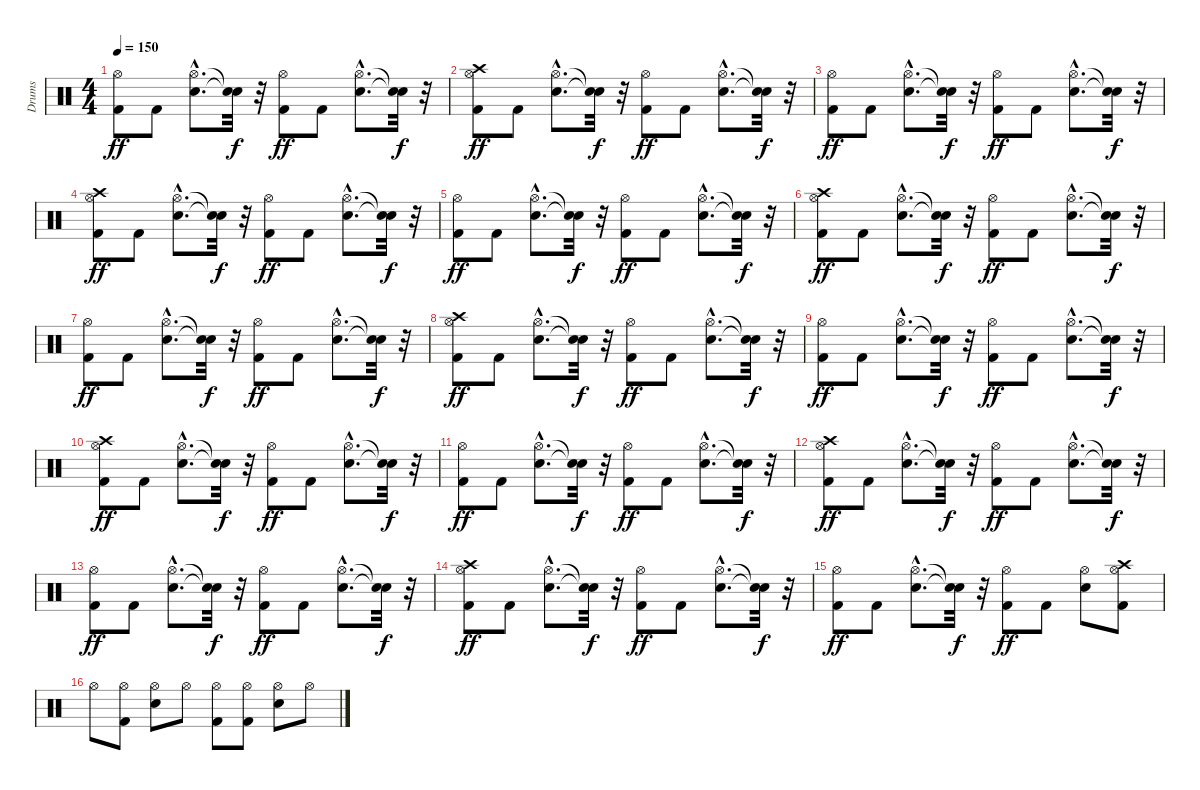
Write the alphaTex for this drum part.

\track ("Drums" "Drums") {instrument percussion}
\staff {score}
\articulation defaults
\ts (4 4)
\tempo 150
\clef neutral
\ks c
("Kick (hit) 2" "Hi-Hat (open)").8{dy ff} "Kick (hit) 2".8 ("Snare (hit) 2"{hac} "Hi-Hat (open)"{hac}).8{d} ("Snare (hit)"{t} "Snare (hit)"{t}).32{dy f} r.32 ("Kick (hit) 2" "Hi-Hat (open)").8{dy ff} "Kick (hit) 2".8 ("Snare (hit) 2"{hac} "Hi-Hat (open)"{hac}).8{d} ("Snare (hit)"{t} "Snare (hit)"{t}).32{dy f} r.32 |
("Kick (hit) 2" "Hi-Hat (open)" "Crash high (hit)").8{dy ff} "Kick (hit) 2".8 ("Snare (hit) 2"{hac} "Hi-Hat (open)"{hac}).8{d} ("Snare (hit)"{t} "Snare (hit)"{t}).32{dy f} r.32 ("Kick (hit) 2" "Hi-Hat (open)").8{dy ff} "Kick (hit) 2".8 ("Snare (hit) 2"{hac} "Hi-Hat (open)"{hac}).8{d} ("Snare (hit)"{t} "Snare (hit)"{t}).32{dy f} r.32 |
("Kick (hit) 2" "Hi-Hat (open)").8{dy ff} "Kick (hit) 2".8 ("Snare (hit) 2"{hac} "Hi-Hat (open)"{hac}).8{d} ("Snare (hit)"{t} "Snare (hit)"{t}).32{dy f} r.32 ("Kick (hit) 2" "Hi-Hat (open)").8{dy ff} "Kick (hit) 2".8 ("Snare (hit) 2"{hac} "Hi-Hat (open)"{hac}).8{d} ("Snare (hit)"{t} "Snare (hit)"{t}).32{dy f} r.32 |
("Kick (hit) 2" "Hi-Hat (open)" "Crash high (hit)").8{dy ff} "Kick (hit) 2".8 ("Snare (hit) 2"{hac} "Hi-Hat (open)"{hac}).8{d} ("Snare (hit)"{t} "Snare (hit)"{t}).32{dy f} r.32 ("Kick (hit) 2" "Hi-Hat (open)").8{dy ff} "Kick (hit) 2".8 ("Snare (hit) 2"{hac} "Hi-Hat (open)"{hac}).8{d} ("Snare (hit)"{t} "Snare (hit)"{t}).32{dy f} r.32 |
("Kick (hit) 2" "Hi-Hat (open)").8{dy ff} "Kick (hit) 2".8 ("Snare (hit) 2"{hac} "Hi-Hat (open)"{hac}).8{d} ("Snare (hit)"{t} "Snare (hit)"{t}).32{dy f} r.32 ("Kick (hit) 2" "Hi-Hat (open)").8{dy ff} "Kick (hit) 2".8 ("Snare (hit) 2"{hac} "Hi-Hat (open)"{hac}).8{d} ("Snare (hit)"{t} "Snare (hit)"{t}).32{dy f} r.32 |
("Kick (hit) 2" "Hi-Hat (open)" "Crash high (hit)").8{dy ff} "Kick (hit) 2".8 ("Snare (hit) 2"{hac} "Hi-Hat (open)"{hac}).8{d} ("Snare (hit)"{t} "Snare (hit)"{t}).32{dy f} r.32 ("Kick (hit) 2" "Hi-Hat (open)").8{dy ff} "Kick (hit) 2".8 ("Snare (hit) 2"{hac} "Hi-Hat (open)"{hac}).8{d} ("Snare (hit)"{t} "Snare (hit)"{t}).32{dy f} r.32 |
("Kick (hit) 2" "Hi-Hat (open)").8{dy ff} "Kick (hit) 2".8 ("Snare (hit) 2"{hac} "Hi-Hat (open)"{hac}).8{d} ("Snare (hit)"{t} "Snare (hit)"{t}).32{dy f} r.32 ("Kick (hit) 2" "Hi-Hat (open)").8{dy ff} "Kick (hit) 2".8 ("Snare (hit) 2"{hac} "Hi-Hat (open)"{hac}).8{d} ("Snare (hit)"{t} "Snare (hit)"{t}).32{dy f} r.32 |
("Kick (hit) 2" "Hi-Hat (open)" "Crash high (hit)").8{dy ff} "Kick (hit) 2".8 ("Snare (hit) 2"{hac} "Hi-Hat (open)"{hac}).8{d} ("Snare (hit)"{t} "Snare (hit)"{t}).32{dy f} r.32 ("Kick (hit) 2" "Hi-Hat (open)").8{dy ff} "Kick (hit) 2".8 ("Snare (hit) 2"{hac} "Hi-Hat (open)"{hac}).8{d} ("Snare (hit)"{t} "Snare (hit)"{t}).32{dy f} r.32 |
("Kick (hit) 2" "Hi-Hat (open)").8{dy ff} "Kick (hit) 2".8 ("Snare (hit) 2"{hac} "Hi-Hat (open)"{hac}).8{d} ("Snare (hit)"{t} "Snare (hit)"{t}).32{dy f} r.32 ("Kick (hit) 2" "Hi-Hat (open)").8{dy ff} "Kick (hit) 2".8 ("Snare (hit) 2"{hac} "Hi-Hat (open)"{hac}).8{d} ("Snare (hit)"{t} "Snare (hit)"{t}).32{dy f} r.32 |
("Kick (hit) 2" "Hi-Hat (open)" "Crash high (hit)").8{dy ff} "Kick (hit) 2".8 ("Snare (hit) 2"{hac} "Hi-Hat (open)"{hac}).8{d} ("Snare (hit)"{t} "Snare (hit)"{t}).32{dy f} r.32 ("Kick (hit) 2" "Hi-Hat (open)").8{dy ff} "Kick (hit) 2".8 ("Snare (hit) 2"{hac} "Hi-Hat (open)"{hac}).8{d} ("Snare (hit)"{t} "Snare (hit)"{t}).32{dy f} r.32 |
("Kick (hit) 2" "Hi-Hat (open)").8{dy ff} "Kick (hit) 2".8 ("Snare (hit) 2"{hac} "Hi-Hat (open)"{hac}).8{d} ("Snare (hit)"{t} "Snare (hit)"{t}).32{dy f} r.32 ("Kick (hit) 2" "Hi-Hat (open)").8{dy ff} "Kick (hit) 2".8 ("Snare (hit) 2"{hac} "Hi-Hat (open)"{hac}).8{d} ("Snare (hit)"{t} "Snare (hit)"{t}).32{dy f} r.32 |
("Kick (hit) 2" "Hi-Hat (open)" "Crash high (hit)").8{dy ff} "Kick (hit) 2".8 ("Snare (hit) 2"{hac} "Hi-Hat (open)"{hac}).8{d} ("Snare (hit)"{t} "Snare (hit)"{t}).32{dy f} r.32 ("Kick (hit) 2" "Hi-Hat (open)").8{dy ff} "Kick (hit) 2".8 ("Snare (hit) 2"{hac} "Hi-Hat (open)"{hac}).8{d} ("Snare (hit)"{t} "Snare (hit)"{t}).32{dy f} r.32 |
("Kick (hit) 2" "Hi-Hat (open)").8{dy ff} "Kick (hit) 2".8 ("Snare (hit) 2"{hac} "Hi-Hat (open)"{hac}).8{d} ("Snare (hit)"{t} "Snare (hit)"{t}).32{dy f} r.32 ("Kick (hit) 2" "Hi-Hat (open)").8{dy ff} "Kick (hit) 2".8 ("Snare (hit) 2"{hac} "Hi-Hat (open)"{hac}).8{d} ("Snare (hit)"{t} "Snare (hit)"{t}).32{dy f} r.32 |
("Kick (hit) 2" "Hi-Hat (open)" "Crash high (hit)").8{dy ff} "Kick (hit) 2".8 ("Snare (hit) 2"{hac} "Hi-Hat (open)"{hac}).8{d} ("Snare (hit)"{t} "Snare (hit)"{t}).32{dy f} r.32 ("Kick (hit) 2" "Hi-Hat (open)").8{dy ff} "Kick (hit) 2".8 ("Snare (hit) 2"{hac} "Hi-Hat (open)"{hac}).8{d} ("Snare (hit)"{t} "Snare (hit)"{t}).32{dy f} r.32 |
("Kick (hit) 2" "Hi-Hat (open)").8{dy ff} "Kick (hit) 2".8 ("Snare (hit) 2"{hac} "Hi-Hat (open)"{hac}).8{d} ("Snare (hit)"{t} "Snare (hit)"{t}).32{dy f} r.32 ("Kick (hit) 2" "Hi-Hat (open)").8{dy ff} "Kick (hit) 2".8 ("Snare (hit) 2" "Hi-Hat (open)").8 ("Kick (hit) 2" "Hi-Hat (open)" "Crash high (hit)").8 |
"Hi-Hat (open)".8 ("Kick (hit) 2" "Hi-Hat (open)").8 ("Snare (hit) 2" "Hi-Hat (open)").8 "Hi-Hat (open)".8 ("Kick (hit) 2" "Hi-Hat (open)").8 ("Kick (hit) 2" "Hi-Hat (open)").8 ("Snare (hit) 2" "Hi-Hat (open)").8 "Hi-Hat (open)".8
